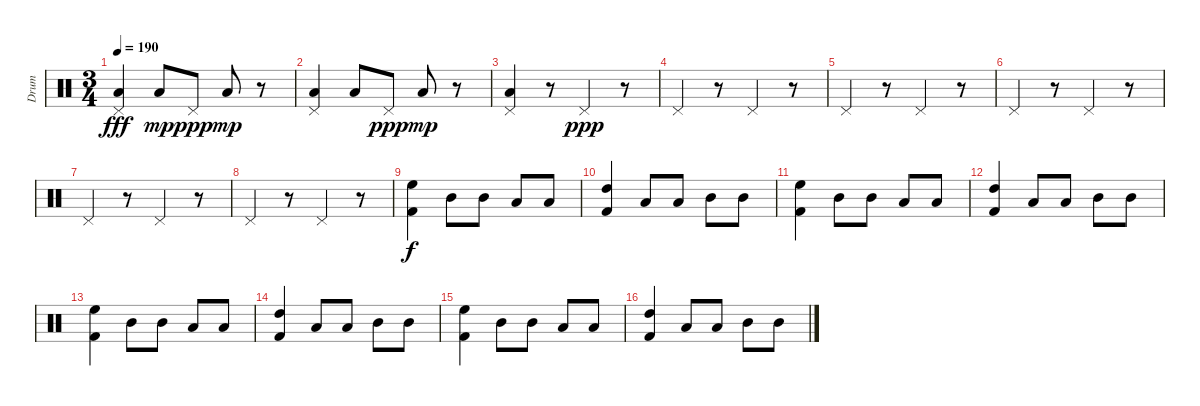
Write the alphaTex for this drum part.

\track ("Drum" "Drum") {instrument percussion}
\staff {score}
\articulation defaults
\ts (3 4)
\tempo 190
\clef neutral
\ks c
("Pedal Hi-Hat (hit)" "Low Tom (hit)").4{dy fff} "Low Tom (hit)".8{dy mp} "Pedal Hi-Hat (hit)".8{dy ppp} "Low Tom (hit)".8{dy mp} r.8 |
("Pedal Hi-Hat (hit)" "Low Tom (hit)").4 "Low Tom (hit)".8 "Pedal Hi-Hat (hit)".8{dy ppp} "Low Tom (hit)".8{dy mp} r.8 |
("Pedal Hi-Hat (hit)" "Low Tom (hit)").4 r.8 "Pedal Hi-Hat (hit)".4{dy ppp} r.8 |
"Pedal Hi-Hat (hit)".4 r.8 "Pedal Hi-Hat (hit)".4 r.8 |
"Pedal Hi-Hat (hit)".4 r.8 "Pedal Hi-Hat (hit)".4 r.8 |
"Pedal Hi-Hat (hit)".4 r.8 "Pedal Hi-Hat (hit)".4 r.8 |
"Pedal Hi-Hat (hit)".4 r.8 "Pedal Hi-Hat (hit)".4 r.8 |
"Pedal Hi-Hat (hit)".4 r.8 "Pedal Hi-Hat (hit)".4 r.8 |
("High Floor Tom (hit)" "Kick (hit) 2").4{dy f} "Mid Tom (hit)".8 "Mid Tom (hit)".8 "Low Tom (hit)".8 "Low Tom (hit)".8 |
("High Tom (hit)" "Kick (hit) 2").4 "Low Tom (hit)".8 "Low Tom (hit)".8 "Mid Tom (hit)".8 "Mid Tom (hit)".8 |
("High Floor Tom (hit)" "Kick (hit) 2").4 "Mid Tom (hit)".8 "Mid Tom (hit)".8 "Low Tom (hit)".8 "Low Tom (hit)".8 |
("High Tom (hit)" "Kick (hit) 2").4 "Low Tom (hit)".8 "Low Tom (hit)".8 "Mid Tom (hit)".8 "Mid Tom (hit)".8 |
("High Floor Tom (hit)" "Kick (hit) 2").4 "Mid Tom (hit)".8 "Mid Tom (hit)".8 "Low Tom (hit)".8 "Low Tom (hit)".8 |
("High Tom (hit)" "Kick (hit) 2").4 "Low Tom (hit)".8 "Low Tom (hit)".8 "Mid Tom (hit)".8 "Mid Tom (hit)".8 |
("High Floor Tom (hit)" "Kick (hit) 2").4 "Mid Tom (hit)".8 "Mid Tom (hit)".8 "Low Tom (hit)".8 "Low Tom (hit)".8 |
("High Tom (hit)" "Kick (hit) 2").4 "Low Tom (hit)".8 "Low Tom (hit)".8 "Mid Tom (hit)".8 "Mid Tom (hit)".8
